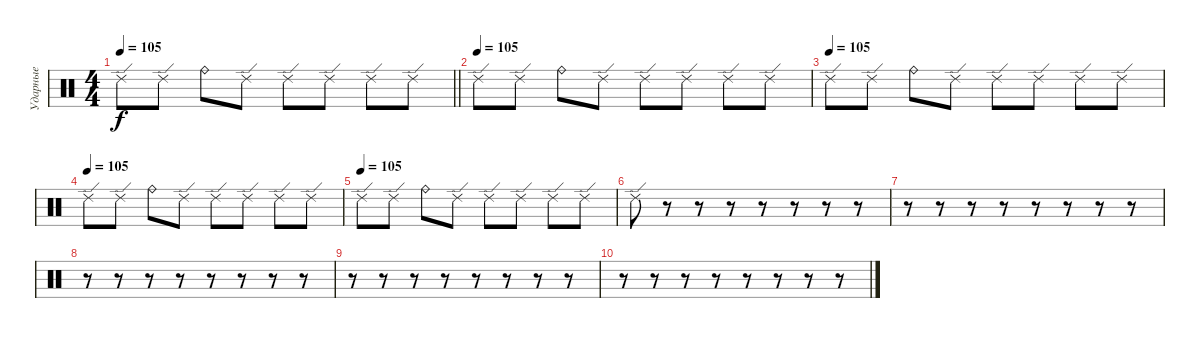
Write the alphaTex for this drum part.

\track ("Ударные" "Ударные") {instrument percussion}
\staff {score}
\articulation defaults
\ts (4 4)
\tempo 105
\clef neutral
\barLineRight lightlight
\ks c "Ride (edge) 2".8{dy f} "Ride (edge) 2".8 "Ride (bell)".8 "Ride (edge) 2".8 "Ride (edge) 2".8 "Ride (edge) 2".8 "Ride (edge) 2".8 "Ride (edge) 2".8
|
\tempo (105)
"Ride (edge) 2".8 "Ride (edge) 2".8 "Ride (bell)".8 "Ride (edge) 2".8 "Ride (edge) 2".8 "Ride (edge) 2".8 "Ride (edge) 2".8 "Ride (edge) 2".8 |
\tempo (105)
"Ride (edge) 2".8 "Ride (edge) 2".8 "Ride (bell)".8 "Ride (edge) 2".8 "Ride (edge) 2".8 "Ride (edge) 2".8 "Ride (edge) 2".8 "Ride (edge) 2".8 |
\tempo (105)
"Ride (edge) 2".8 "Ride (edge) 2".8 "Ride (bell)".8 "Ride (edge) 2".8 "Ride (edge) 2".8 "Ride (edge) 2".8 "Ride (edge) 2".8 "Ride (edge) 2".8 |
\tempo (105)
"Ride (edge) 2".8 "Ride (edge) 2".8 "Ride (bell)".8 "Ride (edge) 2".8 "Ride (edge) 2".8 "Ride (edge) 2".8 "Ride (edge) 2".8 "Ride (edge) 2".8 |
"Ride (edge) 2".8 r.8 r.8 r.8 r.8 r.8 r.8 r.8 |
r.8 r.8 r.8 r.8 r.8 r.8 r.8 r.8 |
r.8 r.8 r.8 r.8 r.8 r.8 r.8 r.8 |
r.8 r.8 r.8 r.8 r.8 r.8 r.8 r.8 |
r.8 r.8 r.8 r.8 r.8 r.8 r.8 r.8
